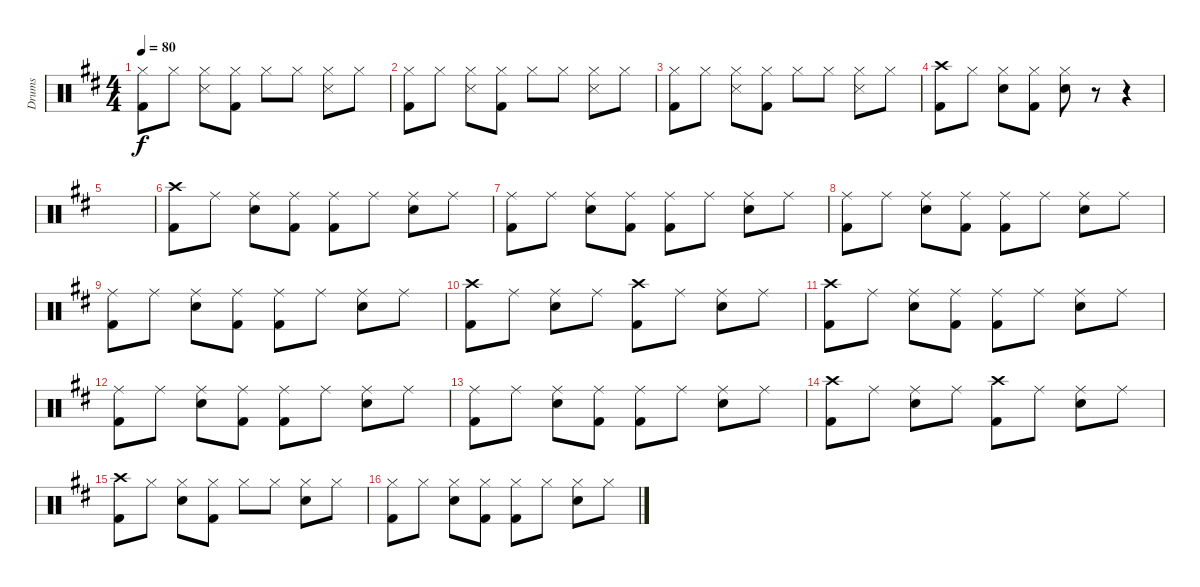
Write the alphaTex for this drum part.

\track ("Drums" "Drums") {instrument percussion}
\staff {score}
\articulation defaults
\ts (4 4)
\tempo 80
\clef neutral
\ks d
("Hi-Hat (closed)" "Kick (hit) 2").8{dy f} "Hi-Hat (closed)".8 ("Hi-Hat (closed)" "Snare (side stick) 3").8 ("Hi-Hat (closed)" "Kick (hit) 2").8 "Hi-Hat (closed)".8 "Hi-Hat (closed)".8 ("Hi-Hat (closed)" "Snare (side stick) 3").8 "Hi-Hat (closed)".8 |
("Hi-Hat (closed)" "Kick (hit) 2").8 "Hi-Hat (closed)".8 ("Hi-Hat (closed)" "Snare (side stick) 3").8 ("Hi-Hat (closed)" "Kick (hit) 2").8 "Hi-Hat (closed)".8 "Hi-Hat (closed)".8 ("Hi-Hat (closed)" "Snare (side stick) 3").8 "Hi-Hat (closed)".8 |
("Hi-Hat (closed)" "Kick (hit) 2").8 "Hi-Hat (closed)".8 ("Hi-Hat (closed)" "Snare (side stick) 3").8 ("Hi-Hat (closed)" "Kick (hit) 2").8 "Hi-Hat (closed)".8 "Hi-Hat (closed)".8 ("Hi-Hat (closed)" "Snare (side stick) 3").8 "Hi-Hat (closed)".8 |
("Crash high (hit)" "Kick (hit) 2").8 "Hi-Hat (closed)".8 ("Hi-Hat (closed)" "Snare (hit) 2").8 ("Hi-Hat (closed)" "Kick (hit) 2").8 ("Hi-Hat (closed)" "Snare (hit) 2").8 r.8 r.4 |
|
("Crash high (hit)" "Kick (hit) 2").8 "Ride (middle)".8 ("Ride (middle)" "Snare (hit) 2").8 ("Ride (middle)" "Kick (hit) 2").8 ("Ride (middle)" "Kick (hit) 2").8 "Ride (middle)".8 ("Ride (middle)" "Snare (hit) 2").8 "Ride (middle)".8 |
("Ride (middle)" "Kick (hit) 2").8 "Ride (middle)".8 ("Ride (middle)" "Snare (hit) 2").8 ("Ride (middle)" "Kick (hit) 2").8 ("Ride (middle)" "Kick (hit) 2").8 "Ride (middle)".8 ("Ride (middle)" "Snare (hit) 2").8 "Ride (middle)".8 |
("Ride (middle)" "Kick (hit) 2").8 "Ride (middle)".8 ("Ride (middle)" "Snare (hit) 2").8 ("Ride (middle)" "Kick (hit) 2").8 ("Ride (middle)" "Kick (hit) 2").8 "Ride (middle)".8 ("Ride (middle)" "Snare (hit) 2").8 "Ride (middle)".8 |
("Ride (middle)" "Kick (hit) 2").8 "Ride (middle)".8 ("Ride (middle)" "Snare (hit) 2").8 ("Ride (middle)" "Kick (hit) 2").8 ("Ride (middle)" "Kick (hit) 2").8 "Ride (middle)".8 ("Ride (middle)" "Snare (hit) 2").8 "Ride (middle)".8 |
("Crash high (hit)" "Kick (hit) 2").8 "Ride (middle)".8 ("Ride (middle)" "Snare (hit) 2").8 "Ride (middle)".8 ("Crash high (hit)" "Kick (hit) 2").8 "Ride (middle)".8 ("Ride (middle)" "Snare (hit) 2").8 "Ride (middle)".8 |
("Crash high (hit)" "Kick (hit) 2").8 "Ride (middle)".8 ("Ride (middle)" "Snare (hit) 2").8 ("Ride (middle)" "Kick (hit) 2").8 ("Ride (middle)" "Kick (hit) 2").8 "Ride (middle)".8 ("Ride (middle)" "Snare (hit) 2").8 "Ride (middle)".8 |
("Ride (middle)" "Kick (hit) 2").8 "Ride (middle)".8 ("Ride (middle)" "Snare (hit) 2").8 ("Ride (middle)" "Kick (hit) 2").8 ("Ride (middle)" "Kick (hit) 2").8 "Ride (middle)".8 ("Ride (middle)" "Snare (hit) 2").8 "Ride (middle)".8 |
("Ride (middle)" "Kick (hit) 2").8 "Ride (middle)".8 ("Ride (middle)" "Snare (hit) 2").8 ("Ride (middle)" "Kick (hit) 2").8 ("Ride (middle)" "Kick (hit) 2").8 "Ride (middle)".8 ("Ride (middle)" "Snare (hit) 2").8 "Ride (middle)".8 |
("Crash high (hit)" "Kick (hit) 2").8 "Ride (middle)".8 ("Ride (middle)" "Snare (hit) 2").8 "Ride (middle)".8 ("Crash high (hit)" "Kick (hit) 2").8 "Ride (middle)".8 ("Ride (middle)" "Snare (hit) 2").8 "Ride (middle)".8 |
("Crash high (hit)" "Kick (hit) 2").8 "Hi-Hat (closed)".8 ("Hi-Hat (closed)" "Snare (hit) 2").8 ("Hi-Hat (closed)" "Kick (hit) 2").8 "Hi-Hat (closed)".8 "Hi-Hat (closed)".8 ("Hi-Hat (closed)" "Snare (hit) 2").8 "Hi-Hat (closed)".8 |
("Hi-Hat (closed)" "Kick (hit) 2").8 "Hi-Hat (closed)".8 ("Hi-Hat (closed)" "Snare (hit) 2").8 ("Hi-Hat (closed)" "Kick (hit) 2").8 ("Hi-Hat (closed)" "Kick (hit) 2").8 "Hi-Hat (closed)".8 ("Hi-Hat (closed)" "Snare (hit) 2").8 "Hi-Hat (closed)".8
